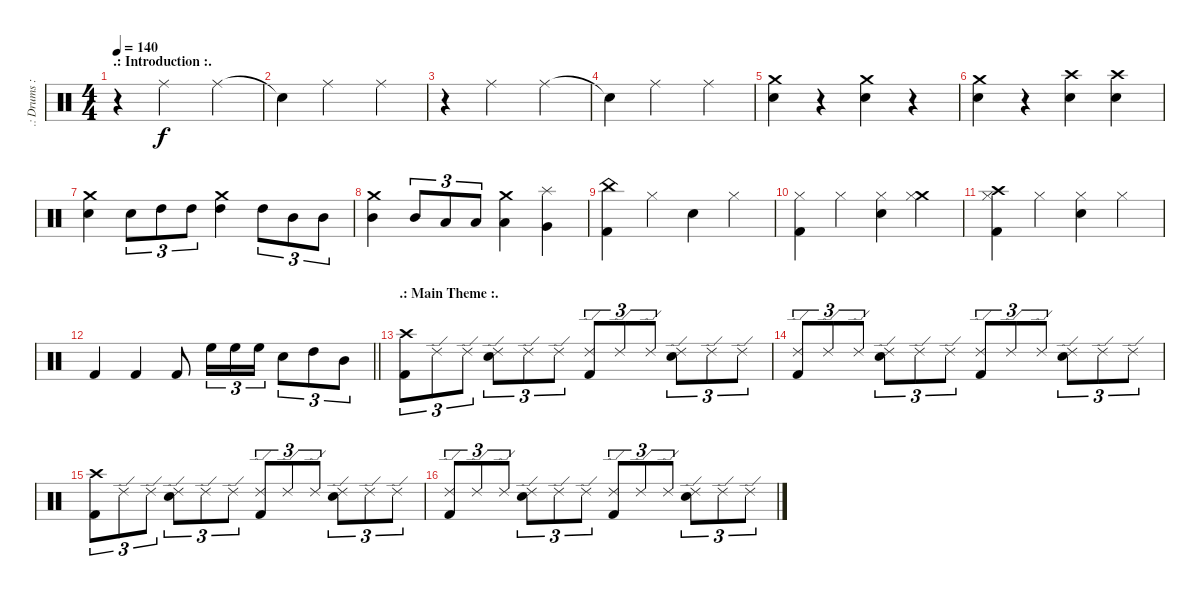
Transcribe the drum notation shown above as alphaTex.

\track (".: Drums :." ".: Drums :") {instrument percussion}
\staff {score}
\articulation defaults
\ts (4 4)
\section ("" ".: Introduction :.")
\tempo 140
\clef neutral
\ks c
r.4{dy f} "Ride (middle)".2 "Ride (middle)".4 |
"Snare (hit)"{t}.4 "Ride (middle)".2 "Ride (middle)".4 |
r.4 "Ride (middle)".2 "Ride (middle)".4 |
"Snare (hit)"{t}.4 "Ride (middle)".2 "Ride (middle)".4 |
("Snare (hit) 2" "Crash medium (hit)").4 r.4 ("Snare (hit) 2" "Crash medium (hit)").4 r.4 |
("Snare (hit) 2" "Crash medium (hit)").4 r.4 ("Snare (hit) 2" "Crash high (hit)").4 ("Snare (hit) 2" "Crash high (hit)").4 |
("Snare (hit) 2" "Crash medium (hit)").4 "Snare (hit) 2".8{tu (3 2)} "High Tom (hit)".8{tu (3 2)} "High Tom (hit)".8{tu (3 2)} ("High Tom (hit)" "Crash medium (hit)").4 "High Tom (hit)".8{tu (3 2)} "Mid Tom (hit)".8{tu (3 2)} "Mid Tom (hit)".8{tu (3 2)} |
("Mid Tom (hit)" "Crash medium (hit)").4 "Mid Tom (hit)".8{tu (3 2)} "Low Tom (hit)".8{tu (3 2)} "Low Tom (hit)".8{tu (3 2)} ("Low Tom (hit)" "Crash medium (hit)").4 ("Very Low Tom (hit)" "Splash (hit)").4 |
("China (hit)" "Kick (hit) 2").4 "Hi-Hat (closed)".4 "Snare (hit) 2".4 "Hi-Hat (closed)".4 |
("Hi-Hat (closed)" "Kick (hit) 2").4 "Hi-Hat (closed)".4 ("Hi-Hat (closed)" "Snare (hit) 2").4 ("Crash medium (hit)" "Hi-Hat (closed)").4 |
("Crash high (hit)" "Hi-Hat (closed)" "Kick (hit) 2").4 "Hi-Hat (closed)".4 ("Hi-Hat (closed)" "Snare (hit) 2").4 "Hi-Hat (closed)".4 |
\barLineRight lightlight "Kick (hit) 2".4 "Kick (hit) 2".4 "Kick (hit) 2".8 "High Floor Tom (hit)".16{tu (3 2)} "High Floor Tom (hit)".16{tu (3 2)} "High Floor Tom (hit)".16{tu (3 2)} "Snare (hit) 2".8{tu (3 2)} "High Tom (hit)".8{tu (3 2)} "Mid Tom (hit)".8{tu (3 2)}
|
\section ("" ".: Main Theme :.")
("Crash high (hit)" "Kick (hit) 2").8{tu (3 2)} "Ride (edge) 2".8{tu (3 2)} "Ride (edge) 2".8{tu (3 2)} ("Ride (edge) 2" "Snare (hit) 2").8{tu (3 2)} "Ride (edge) 2".8{tu (3 2)} "Ride (edge) 2".8{tu (3 2)} ("Ride (edge) 2" "Kick (hit) 2").8{tu (3 2)} "Ride (edge) 2".8{tu (3 2)} "Ride (edge) 2".8{tu (3 2)} ("Ride (edge) 2" "Snare (hit) 2").8{tu (3 2)} "Ride (edge) 2".8{tu (3 2)} "Ride (edge) 2".8{tu (3 2)} |
("Ride (edge) 2" "Kick (hit) 2").8{tu (3 2)} "Ride (edge) 2".8{tu (3 2)} "Ride (edge) 2".8{tu (3 2)} ("Ride (edge) 2" "Snare (hit) 2").8{tu (3 2)} "Ride (edge) 2".8{tu (3 2)} "Ride (edge) 2".8{tu (3 2)} ("Ride (edge) 2" "Kick (hit) 2").8{tu (3 2)} "Ride (edge) 2".8{tu (3 2)} "Ride (edge) 2".8{tu (3 2)} ("Ride (edge) 2" "Snare (hit) 2").8{tu (3 2)} "Ride (edge) 2".8{tu (3 2)} "Ride (edge) 2".8{tu (3 2)} |
("Crash high (hit)" "Kick (hit) 2").8{tu (3 2)} "Ride (edge) 2".8{tu (3 2)} "Ride (edge) 2".8{tu (3 2)} ("Ride (edge) 2" "Snare (hit) 2").8{tu (3 2)} "Ride (edge) 2".8{tu (3 2)} "Ride (edge) 2".8{tu (3 2)} ("Ride (edge) 2" "Kick (hit) 2").8{tu (3 2)} "Ride (edge) 2".8{tu (3 2)} "Ride (edge) 2".8{tu (3 2)} ("Ride (edge) 2" "Snare (hit) 2").8{tu (3 2)} "Ride (edge) 2".8{tu (3 2)} "Ride (edge) 2".8{tu (3 2)} |
("Ride (edge) 2" "Kick (hit) 2").8{tu (3 2)} "Ride (edge) 2".8{tu (3 2)} "Ride (edge) 2".8{tu (3 2)} ("Ride (edge) 2" "Snare (hit) 2").8{tu (3 2)} "Ride (edge) 2".8{tu (3 2)} "Ride (edge) 2".8{tu (3 2)} ("Ride (edge) 2" "Kick (hit) 2").8{tu (3 2)} "Ride (edge) 2".8{tu (3 2)} "Ride (edge) 2".8{tu (3 2)} ("Ride (edge) 2" "Snare (hit) 2").8{tu (3 2)} "Ride (edge) 2".8{tu (3 2)} "Ride (edge) 2".8{tu (3 2)}
